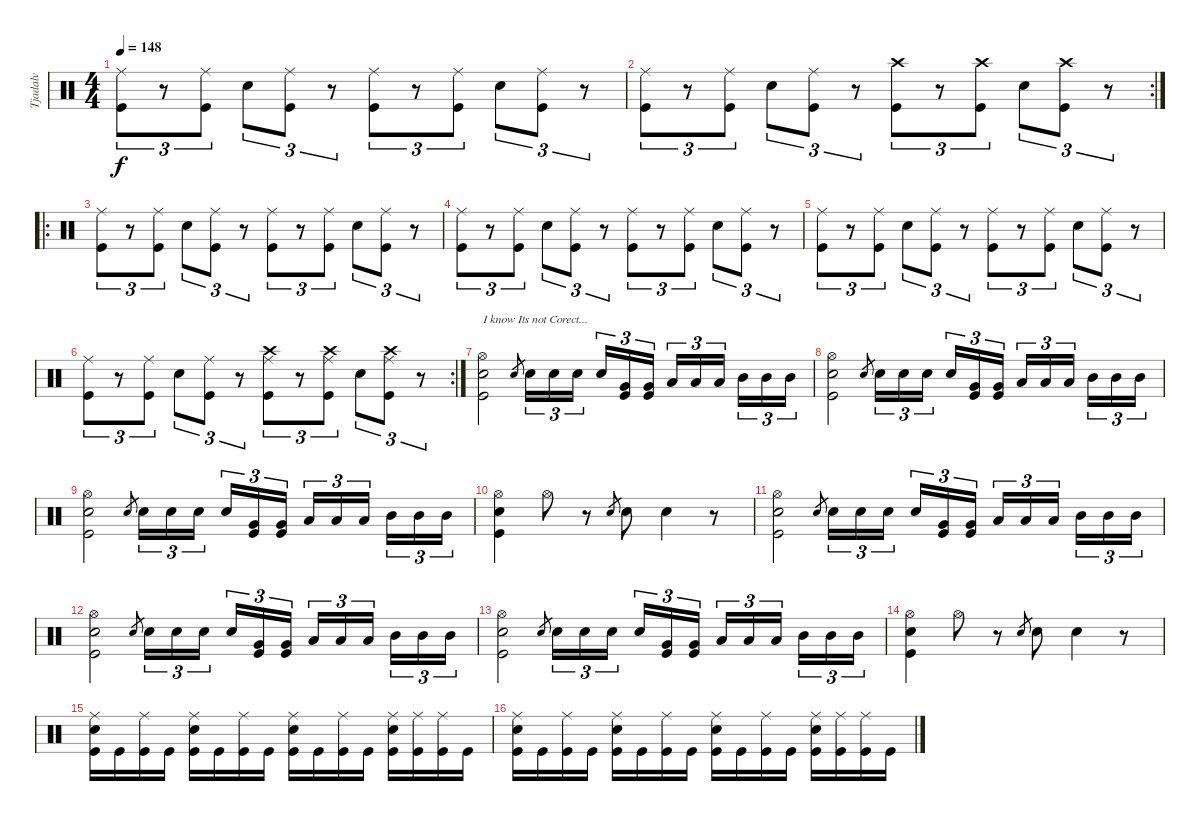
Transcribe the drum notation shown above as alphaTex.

\track ("Tjadalv    ( Drum )" "Tjadalv   ") {instrument percussion}
\staff {score}
\articulation defaults
\ts (4 4)
\tempo 148
\clef neutral
\ks c
("Ride (middle)" "Kick (hit)").8{tu (3 2) dy f} r.8{tu (3 2)} ("Ride (middle)" "Kick (hit)").8{tu (3 2)} "Electric Snare (hit)".8{tu (3 2)} ("Ride (middle)" "Kick (hit)").8{tu (3 2)} r.8{tu (3 2)} ("Ride (middle)" "Kick (hit)").8{tu (3 2)} r.8{tu (3 2)} ("Ride (middle)" "Kick (hit)").8{tu (3 2)} "Electric Snare (hit)".8{tu (3 2)} ("Ride (middle)" "Kick (hit)").8{tu (3 2)} r.8{tu (3 2)} |
\rc 2
("Ride (middle)" "Kick (hit)").8{tu (3 2)} r.8{tu (3 2)} ("Ride (middle)" "Kick (hit)").8{tu (3 2)} "Electric Snare (hit)".8{tu (3 2)} ("Ride (middle)" "Kick (hit)").8{tu (3 2)} r.8{tu (3 2)} ("Crash high (hit)" "Kick (hit)").8{tu (3 2)} r.8{tu (3 2)} ("Crash high (hit)" "Kick (hit)").8{tu (3 2)} "Electric Snare (hit)".8{tu (3 2)} ("Crash high (hit)" "Kick (hit)").8{tu (3 2)} r.8{tu (3 2)} |
\ro
("Ride (middle)" "Kick (hit)").8{tu (3 2)} r.8{tu (3 2)} ("Ride (middle)" "Kick (hit)").8{tu (3 2)} "Electric Snare (hit)".8{tu (3 2)} ("Ride (middle)" "Kick (hit)").8{tu (3 2)} r.8{tu (3 2)} ("Ride (middle)" "Kick (hit)").8{tu (3 2)} r.8{tu (3 2)} ("Ride (middle)" "Kick (hit)").8{tu (3 2)} "Electric Snare (hit)".8{tu (3 2)} ("Ride (middle)" "Kick (hit)").8{tu (3 2)} r.8{tu (3 2)} |
("Ride (middle)" "Kick (hit)").8{tu (3 2)} r.8{tu (3 2)} ("Ride (middle)" "Kick (hit)").8{tu (3 2)} "Electric Snare (hit)".8{tu (3 2)} ("Ride (middle)" "Kick (hit)").8{tu (3 2)} r.8{tu (3 2)} ("Ride (middle)" "Kick (hit)").8{tu (3 2)} r.8{tu (3 2)} ("Ride (middle)" "Kick (hit)").8{tu (3 2)} "Electric Snare (hit)".8{tu (3 2)} ("Ride (middle)" "Kick (hit)").8{tu (3 2)} r.8{tu (3 2)} |
("Ride (middle)" "Kick (hit)").8{tu (3 2)} r.8{tu (3 2)} ("Ride (middle)" "Kick (hit)").8{tu (3 2)} "Electric Snare (hit)".8{tu (3 2)} ("Ride (middle)" "Kick (hit)").8{tu (3 2)} r.8{tu (3 2)} ("Ride (middle)" "Kick (hit)").8{tu (3 2)} r.8{tu (3 2)} ("Ride (middle)" "Kick (hit)").8{tu (3 2)} "Electric Snare (hit)".8{tu (3 2)} ("Ride (middle)" "Kick (hit)").8{tu (3 2)} r.8{tu (3 2)} |
\rc 2
("Ride (middle)" "Kick (hit)").8{tu (3 2)} r.8{tu (3 2)} ("Ride (middle)" "Kick (hit)").8{tu (3 2)} "Electric Snare (hit)".8{tu (3 2)} ("Ride (middle)" "Kick (hit)").8{tu (3 2)} r.8{tu (3 2)} ("Crash high (hit)" "Ride (middle)" "Kick (hit)").8{tu (3 2)} r.8{tu (3 2)} ("Crash high (hit)" "Ride (middle)" "Kick (hit)").8{tu (3 2)} "Electric Snare (hit)".8{tu (3 2)} ("Crash high (hit)" "Ride (middle)" "Kick (hit)").8{tu (3 2)} r.8{tu (3 2)} |
("Hi-Hat (open)" "Electric Snare (hit)" "Kick (hit)").2{txt "I know Its not Corect..."} "Electric Snare (hit)".8{gr} "Electric Snare (hit)".16{tu (3 2)} "Electric Snare (hit)".16{tu (3 2)} "Electric Snare (hit)".16{tu (3 2)} "Electric Snare (hit)".16{tu (3 2)} ("Very Low Tom (hit)" "Kick (hit)").16{tu (3 2)} ("Very Low Tom (hit)" "Kick (hit)").16{tu (3 2)} "Low Tom (hit)".16{tu (3 2)} "Low Tom (hit)".16{tu (3 2)} "Low Tom (hit)".16{tu (3 2)} "Mid Tom (hit)".16{tu (3 2)} "Mid Tom (hit)".16{tu (3 2)} "Mid Tom (hit)".16{tu (3 2)} |
("Hi-Hat (open)" "Electric Snare (hit)" "Kick (hit)").2 "Electric Snare (hit)".8{gr} "Electric Snare (hit)".16{tu (3 2)} "Electric Snare (hit)".16{tu (3 2)} "Electric Snare (hit)".16{tu (3 2)} "Electric Snare (hit)".16{tu (3 2)} ("Very Low Tom (hit)" "Kick (hit)").16{tu (3 2)} ("Very Low Tom (hit)" "Kick (hit)").16{tu (3 2)} "Low Tom (hit)".16{tu (3 2)} "Low Tom (hit)".16{tu (3 2)} "Low Tom (hit)".16{tu (3 2)} "Mid Tom (hit)".16{tu (3 2)} "Mid Tom (hit)".16{tu (3 2)} "Mid Tom (hit)".16{tu (3 2)} |
("Hi-Hat (open)" "Electric Snare (hit)" "Kick (hit)").2 "Electric Snare (hit)".8{gr} "Electric Snare (hit)".16{tu (3 2)} "Electric Snare (hit)".16{tu (3 2)} "Electric Snare (hit)".16{tu (3 2)} "Electric Snare (hit)".16{tu (3 2)} ("Very Low Tom (hit)" "Kick (hit)").16{tu (3 2)} ("Very Low Tom (hit)" "Kick (hit)").16{tu (3 2)} "Low Tom (hit)".16{tu (3 2)} "Low Tom (hit)".16{tu (3 2)} "Low Tom (hit)".16{tu (3 2)} "Mid Tom (hit)".16{tu (3 2)} "Mid Tom (hit)".16{tu (3 2)} "Mid Tom (hit)".16{tu (3 2)} |
("Hi-Hat (open)" "Electric Snare (hit)" "Kick (hit)").4 "Hi-Hat (open)".8 r.8 "Electric Snare (hit)".8{gr} "Electric Snare (hit)".8 "Electric Snare (hit)".4 r.8 |
("Hi-Hat (open)" "Electric Snare (hit)" "Kick (hit)").2 "Electric Snare (hit)".8{gr} "Electric Snare (hit)".16{tu (3 2)} "Electric Snare (hit)".16{tu (3 2)} "Electric Snare (hit)".16{tu (3 2)} "Electric Snare (hit)".16{tu (3 2)} ("Very Low Tom (hit)" "Kick (hit)").16{tu (3 2)} ("Very Low Tom (hit)" "Kick (hit)").16{tu (3 2)} "Low Tom (hit)".16{tu (3 2)} "Low Tom (hit)".16{tu (3 2)} "Low Tom (hit)".16{tu (3 2)} "Mid Tom (hit)".16{tu (3 2)} "Mid Tom (hit)".16{tu (3 2)} "Mid Tom (hit)".16{tu (3 2)} |
("Hi-Hat (open)" "Electric Snare (hit)" "Kick (hit)").2 "Electric Snare (hit)".8{gr} "Electric Snare (hit)".16{tu (3 2)} "Electric Snare (hit)".16{tu (3 2)} "Electric Snare (hit)".16{tu (3 2)} "Electric Snare (hit)".16{tu (3 2)} ("Very Low Tom (hit)" "Kick (hit)").16{tu (3 2)} ("Very Low Tom (hit)" "Kick (hit)").16{tu (3 2)} "Low Tom (hit)".16{tu (3 2)} "Low Tom (hit)".16{tu (3 2)} "Low Tom (hit)".16{tu (3 2)} "Mid Tom (hit)".16{tu (3 2)} "Mid Tom (hit)".16{tu (3 2)} "Mid Tom (hit)".16{tu (3 2)} |
("Hi-Hat (open)" "Electric Snare (hit)" "Kick (hit)").2 "Electric Snare (hit)".8{gr} "Electric Snare (hit)".16{tu (3 2)} "Electric Snare (hit)".16{tu (3 2)} "Electric Snare (hit)".16{tu (3 2)} "Electric Snare (hit)".16{tu (3 2)} ("Very Low Tom (hit)" "Kick (hit)").16{tu (3 2)} ("Very Low Tom (hit)" "Kick (hit)").16{tu (3 2)} "Low Tom (hit)".16{tu (3 2)} "Low Tom (hit)".16{tu (3 2)} "Low Tom (hit)".16{tu (3 2)} "Mid Tom (hit)".16{tu (3 2)} "Mid Tom (hit)".16{tu (3 2)} "Mid Tom (hit)".16{tu (3 2)} |
("Hi-Hat (open)" "Electric Snare (hit)" "Kick (hit)").4 "Hi-Hat (open)".8 r.8 "Electric Snare (hit)".8{gr} "Electric Snare (hit)".8 "Electric Snare (hit)".4 r.8 |
("Ride (middle)" "Electric Snare (hit)" "Kick (hit)").16 "Kick (hit)".16 ("Ride (middle)" "Kick (hit)").16 "Kick (hit)".16 ("Ride (middle)" "Electric Snare (hit)" "Kick (hit)").16 "Kick (hit)".16 ("Ride (middle)" "Kick (hit)").16 "Kick (hit)".16 ("Ride (middle)" "Electric Snare (hit)" "Kick (hit)").16 "Kick (hit)".16 ("Ride (middle)" "Kick (hit)").16 "Kick (hit)".16 ("Ride (middle)" "Electric Snare (hit)" "Kick (hit)").16 ("Ride (middle)" "Kick (hit)").16 ("Ride (middle)" "Kick (hit)").16 "Kick (hit)".16 |
("Ride (middle)" "Electric Snare (hit)" "Kick (hit)").16 "Kick (hit)".16 ("Ride (middle)" "Kick (hit)").16 "Kick (hit)".16 ("Ride (middle)" "Electric Snare (hit)" "Kick (hit)").16 "Kick (hit)".16 ("Ride (middle)" "Kick (hit)").16 "Kick (hit)".16 ("Ride (middle)" "Electric Snare (hit)" "Kick (hit)").16 "Kick (hit)".16 ("Ride (middle)" "Kick (hit)").16 "Kick (hit)".16 ("Ride (middle)" "Electric Snare (hit)" "Kick (hit)").16 ("Ride (middle)" "Kick (hit)").16 ("Ride (middle)" "Kick (hit)").16 "Kick (hit)".16
